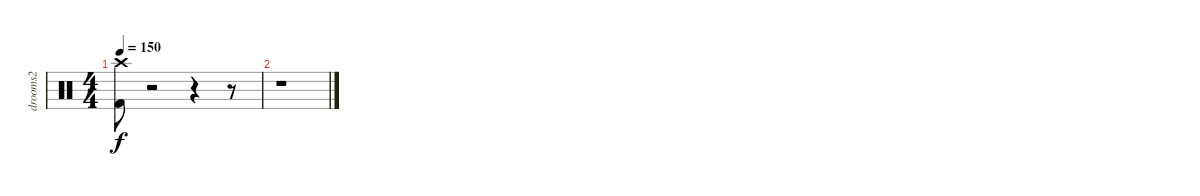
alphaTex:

\track ("drooms2" "drooms2") {instrument percussion}
\staff {score}
\articulation defaults
\ts (4 4)
\tempo 150
\clef neutral
\ks c
("Crash high (hit)" "Kick (hit) 2").8{dy f} r.2 r.4 r.8 |
r.1
